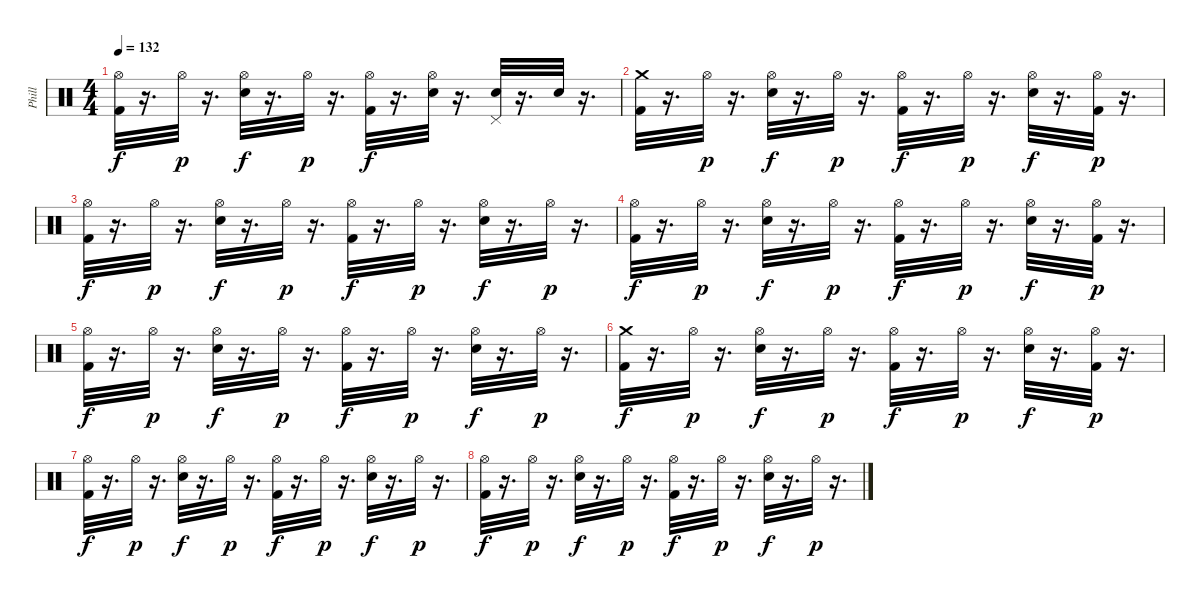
\track ("Phill" "Phill") {instrument percussion}
\staff {score}
\articulation defaults
\ts (4 4)
\tempo 132
\clef neutral
\ks c
("Kick (hit) 2" "Hi-Hat (open)").32{dy f} r.16{d} "Hi-Hat (open)".32{dy p} r.16{d} ("Hi-Hat (open)" "Electric Snare (hit)").32{dy f} r.16{d} "Hi-Hat (open)".32{dy p} r.16{d} ("Hi-Hat (open)" "Kick (hit) 2").32{dy f} r.16{d} ("Hi-Hat (open)" "Electric Snare (hit)").32 r.16{d} ("Pedal Hi-Hat (hit)" "Electric Snare (hit)").32 r.16{d} "Electric Snare (hit)".32 r.16{d} |
("Kick (hit) 2" "Crash medium (hit)").32 r.16{d} "Hi-Hat (open)".32{dy p} r.16{d} ("Hi-Hat (open)" "Electric Snare (hit)").32{dy f} r.16{d} "Hi-Hat (open)".32{dy p} r.16{d} ("Kick (hit) 2" "Hi-Hat (open)").32{dy f} r.16{d} "Hi-Hat (open)".32{dy p} r.16{d} ("Hi-Hat (open)" "Electric Snare (hit)").32{dy f} r.16{d} ("Kick (hit) 2" "Hi-Hat (open)").32{dy p} r.16{d} |
("Hi-Hat (open)" "Kick (hit) 2").32{dy f} r.16{d} "Hi-Hat (open)".32{dy p} r.16{d} ("Hi-Hat (open)" "Electric Snare (hit)").32{dy f} r.16{d} "Hi-Hat (open)".32{dy p} r.16{d} ("Hi-Hat (open)" "Kick (hit) 2").32{dy f} r.16{d} "Hi-Hat (open)".32{dy p} r.16{d} ("Hi-Hat (open)" "Electric Snare (hit)").32{dy f} r.16{d} "Hi-Hat (open)".32{dy p} r.16{d} |
("Kick (hit) 2" "Hi-Hat (open)").32{dy f} r.16{d} "Hi-Hat (open)".32{dy p} r.16{d} ("Hi-Hat (open)" "Electric Snare (hit)").32{dy f} r.16{d} "Hi-Hat (open)".32{dy p} r.16{d} ("Hi-Hat (open)" "Kick (hit) 2").32{dy f} r.16{d} "Hi-Hat (open)".32{dy p} r.16{d} ("Hi-Hat (open)" "Electric Snare (hit)").32{dy f} r.16{d} ("Kick (hit) 2" "Hi-Hat (open)").32{dy p} r.16{d} |
("Hi-Hat (open)" "Kick (hit) 2").32{dy f} r.16{d} "Hi-Hat (open)".32{dy p} r.16{d} ("Electric Snare (hit)" "Hi-Hat (open)").32{dy f} r.16{d} "Hi-Hat (open)".32{dy p} r.16{d} ("Hi-Hat (open)" "Kick (hit) 2").32{dy f} r.16{d} "Hi-Hat (open)".32{dy p} r.16{d} ("Electric Snare (hit)" "Hi-Hat (open)").32{dy f} r.16{d} "Hi-Hat (open)".32{dy p} r.16{d} |
("Crash medium (hit)" "Kick (hit) 2").32{dy f} r.16{d} "Hi-Hat (open)".32{dy p} r.16{d} ("Hi-Hat (open)" "Electric Snare (hit)").32{dy f} r.16{d} "Hi-Hat (open)".32{dy p} r.16{d} ("Hi-Hat (open)" "Kick (hit) 2").32{dy f} r.16{d} "Hi-Hat (open)".32{dy p} r.16{d} ("Hi-Hat (open)" "Electric Snare (hit)").32{dy f} r.16{d} ("Kick (hit) 2" "Hi-Hat (open)").32{dy p} r.16{d} |
("Hi-Hat (open)" "Kick (hit) 2").32{dy f} r.16{d} "Hi-Hat (open)".32{dy p} r.16{d} ("Hi-Hat (open)" "Electric Snare (hit)").32{dy f} r.16{d} "Hi-Hat (open)".32{dy p} r.16{d} ("Kick (hit) 2" "Hi-Hat (open)").32{dy f} r.16{d} "Hi-Hat (open)".32{dy p} r.16{d} ("Hi-Hat (open)" "Electric Snare (hit)").32{dy f} r.16{d} "Hi-Hat (open)".32{dy p} r.16{d} |
("Hi-Hat (open)" "Kick (hit) 2").32{dy f} r.16{d} "Hi-Hat (open)".32{dy p} r.16{d} ("Hi-Hat (open)" "Electric Snare (hit)").32{dy f} r.16{d} "Hi-Hat (open)".32{dy p} r.16{d} ("Hi-Hat (open)" "Kick (hit) 2").32{dy f} r.16{d} "Hi-Hat (open)".32{dy p} r.16{d} ("Electric Snare (hit)" "Hi-Hat (open)").32{dy f} r.16{d} "Hi-Hat (open)".32{dy p} r.16{d}
